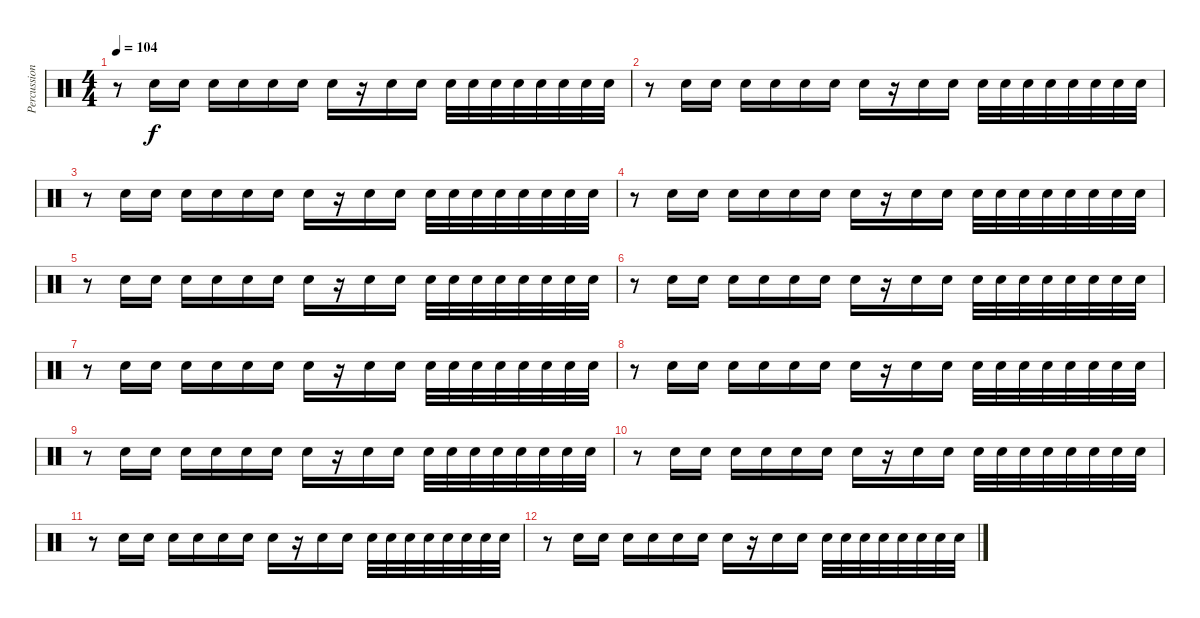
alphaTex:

\track ("Percussioni" "Percussion") {instrument percussion}
\staff {score}
\articulation defaults
\ts (4 4)
\tempo 104
\clef neutral
\ks c
r.8{dy f volume 8} "Electric Snare (hit)".16 "Electric Snare (hit)".16 "Electric Snare (hit)".16 "Electric Snare (hit)".16 "Electric Snare (hit)".16 "Electric Snare (hit)".16 "Electric Snare (hit)".16 r.16 "Electric Snare (hit)".16 "Electric Snare (hit)".16 "Electric Snare (hit)".32 "Electric Snare (hit)".32 "Electric Snare (hit)".32 "Electric Snare (hit)".32 "Electric Snare (hit)".32 "Electric Snare (hit)".32 "Electric Snare (hit)".32 "Electric Snare (hit)".32 |
r.8{volume 7} "Electric Snare (hit)".16 "Electric Snare (hit)".16 "Electric Snare (hit)".16 "Electric Snare (hit)".16 "Electric Snare (hit)".16 "Electric Snare (hit)".16 "Electric Snare (hit)".16 r.16 "Electric Snare (hit)".16 "Electric Snare (hit)".16 "Electric Snare (hit)".32 "Electric Snare (hit)".32 "Electric Snare (hit)".32 "Electric Snare (hit)".32 "Electric Snare (hit)".32 "Electric Snare (hit)".32 "Electric Snare (hit)".32 "Electric Snare (hit)".32 |
r.8{volume 6} "Electric Snare (hit)".16 "Electric Snare (hit)".16 "Electric Snare (hit)".16 "Electric Snare (hit)".16 "Electric Snare (hit)".16 "Electric Snare (hit)".16 "Electric Snare (hit)".16 r.16 "Electric Snare (hit)".16 "Electric Snare (hit)".16 "Electric Snare (hit)".32 "Electric Snare (hit)".32 "Electric Snare (hit)".32 "Electric Snare (hit)".32 "Electric Snare (hit)".32 "Electric Snare (hit)".32 "Electric Snare (hit)".32 "Electric Snare (hit)".32 |
r.8{volume 5} "Electric Snare (hit)".16 "Electric Snare (hit)".16 "Electric Snare (hit)".16 "Electric Snare (hit)".16 "Electric Snare (hit)".16 "Electric Snare (hit)".16 "Electric Snare (hit)".16 r.16 "Electric Snare (hit)".16 "Electric Snare (hit)".16 "Electric Snare (hit)".32 "Electric Snare (hit)".32 "Electric Snare (hit)".32 "Electric Snare (hit)".32 "Electric Snare (hit)".32 "Electric Snare (hit)".32 "Electric Snare (hit)".32 "Electric Snare (hit)".32 |
r.8{volume 4} "Electric Snare (hit)".16 "Electric Snare (hit)".16 "Electric Snare (hit)".16 "Electric Snare (hit)".16 "Electric Snare (hit)".16 "Electric Snare (hit)".16 "Electric Snare (hit)".16 r.16 "Electric Snare (hit)".16 "Electric Snare (hit)".16 "Electric Snare (hit)".32 "Electric Snare (hit)".32 "Electric Snare (hit)".32 "Electric Snare (hit)".32 "Electric Snare (hit)".32 "Electric Snare (hit)".32 "Electric Snare (hit)".32 "Electric Snare (hit)".32 |
r.8{volume 3} "Electric Snare (hit)".16 "Electric Snare (hit)".16 "Electric Snare (hit)".16 "Electric Snare (hit)".16 "Electric Snare (hit)".16 "Electric Snare (hit)".16 "Electric Snare (hit)".16 r.16 "Electric Snare (hit)".16 "Electric Snare (hit)".16 "Electric Snare (hit)".32 "Electric Snare (hit)".32 "Electric Snare (hit)".32 "Electric Snare (hit)".32 "Electric Snare (hit)".32 "Electric Snare (hit)".32 "Electric Snare (hit)".32 "Electric Snare (hit)".32 |
r.8{volume 2} "Electric Snare (hit)".16 "Electric Snare (hit)".16 "Electric Snare (hit)".16 "Electric Snare (hit)".16 "Electric Snare (hit)".16 "Electric Snare (hit)".16 "Electric Snare (hit)".16 r.16 "Electric Snare (hit)".16 "Electric Snare (hit)".16 "Electric Snare (hit)".32 "Electric Snare (hit)".32 "Electric Snare (hit)".32 "Electric Snare (hit)".32 "Electric Snare (hit)".32 "Electric Snare (hit)".32 "Electric Snare (hit)".32 "Electric Snare (hit)".32 |
r.8{volume 1} "Electric Snare (hit)".16 "Electric Snare (hit)".16 "Electric Snare (hit)".16 "Electric Snare (hit)".16 "Electric Snare (hit)".16 "Electric Snare (hit)".16 "Electric Snare (hit)".16 r.16 "Electric Snare (hit)".16 "Electric Snare (hit)".16 "Electric Snare (hit)".32 "Electric Snare (hit)".32 "Electric Snare (hit)".32 "Electric Snare (hit)".32 "Electric Snare (hit)".32 "Electric Snare (hit)".32 "Electric Snare (hit)".32 "Electric Snare (hit)".32 |
r.8 "Electric Snare (hit)".16 "Electric Snare (hit)".16 "Electric Snare (hit)".16 "Electric Snare (hit)".16 "Electric Snare (hit)".16 "Electric Snare (hit)".16 "Electric Snare (hit)".16 r.16 "Electric Snare (hit)".16 "Electric Snare (hit)".16 "Electric Snare (hit)".32 "Electric Snare (hit)".32 "Electric Snare (hit)".32 "Electric Snare (hit)".32 "Electric Snare (hit)".32 "Electric Snare (hit)".32 "Electric Snare (hit)".32 "Electric Snare (hit)".32 |
r.8 "Electric Snare (hit)".16 "Electric Snare (hit)".16 "Electric Snare (hit)".16 "Electric Snare (hit)".16 "Electric Snare (hit)".16 "Electric Snare (hit)".16 "Electric Snare (hit)".16 r.16 "Electric Snare (hit)".16 "Electric Snare (hit)".16 "Electric Snare (hit)".32 "Electric Snare (hit)".32 "Electric Snare (hit)".32 "Electric Snare (hit)".32 "Electric Snare (hit)".32 "Electric Snare (hit)".32 "Electric Snare (hit)".32 "Electric Snare (hit)".32 |
r.8{volume 0} "Electric Snare (hit)".16 "Electric Snare (hit)".16 "Electric Snare (hit)".16 "Electric Snare (hit)".16 "Electric Snare (hit)".16 "Electric Snare (hit)".16 "Electric Snare (hit)".16 r.16 "Electric Snare (hit)".16 "Electric Snare (hit)".16 "Electric Snare (hit)".32 "Electric Snare (hit)".32 "Electric Snare (hit)".32 "Electric Snare (hit)".32 "Electric Snare (hit)".32 "Electric Snare (hit)".32 "Electric Snare (hit)".32 "Electric Snare (hit)".32 |
r.8 "Electric Snare (hit)".16 "Electric Snare (hit)".16 "Electric Snare (hit)".16 "Electric Snare (hit)".16 "Electric Snare (hit)".16 "Electric Snare (hit)".16 "Electric Snare (hit)".16 r.16 "Electric Snare (hit)".16 "Electric Snare (hit)".16 "Electric Snare (hit)".32 "Electric Snare (hit)".32 "Electric Snare (hit)".32 "Electric Snare (hit)".32 "Electric Snare (hit)".32 "Electric Snare (hit)".32 "Electric Snare (hit)".32 "Electric Snare (hit)".32
